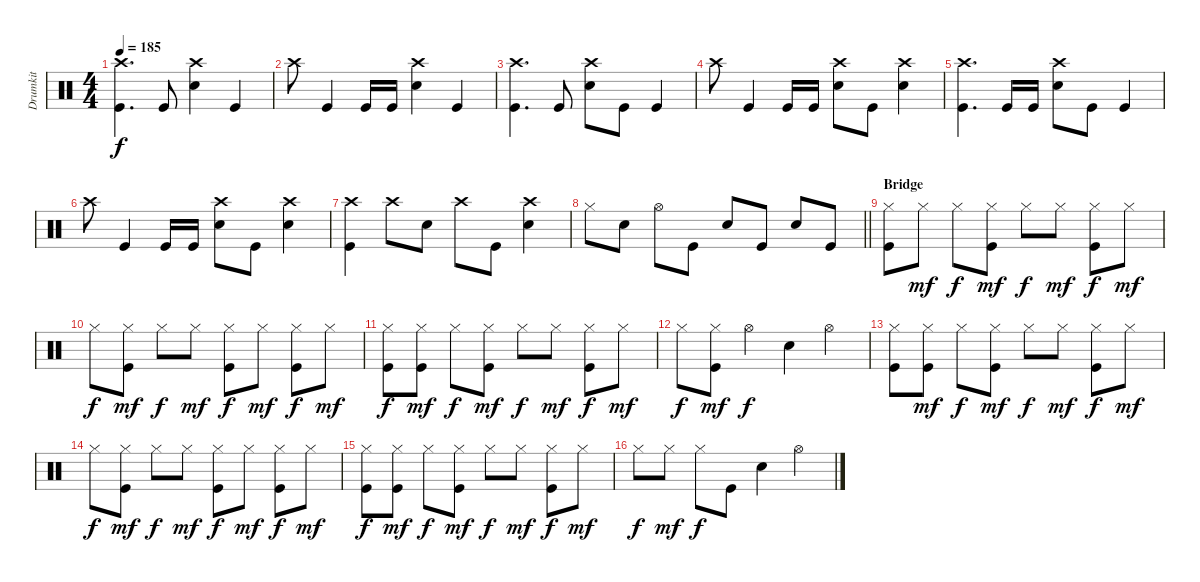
\track ("Drumkit" "Drumkit") {instrument percussion}
\staff {score}
\articulation defaults
\ts (4 4)
\tempo 185
\clef neutral
\ks c
("Crash high (hit)" "Kick (hit)").4{d dy f} "Kick (hit)".8 ("Snare (hit) 2" "Crash high (hit)").4 "Kick (hit)".4 |
"Crash high (hit)".8 "Kick (hit)".4 "Kick (hit)".16 "Kick (hit)".16 ("Snare (hit) 2" "Crash high (hit)").4 "Kick (hit)".4 |
("Crash high (hit)" "Kick (hit)").4{d} "Kick (hit)".8 ("Snare (hit) 2" "Crash high (hit)").8 "Kick (hit)".8 "Kick (hit)".4 |
"Crash high (hit)".8 "Kick (hit)".4 "Kick (hit)".16 "Kick (hit)".16 ("Crash high (hit)" "Snare (hit) 2").8 "Kick (hit)".8 ("Crash high (hit)" "Snare (hit) 2").4 |
("Crash high (hit)" "Kick (hit)").4{d} "Kick (hit)".16 "Kick (hit)".16 ("Snare (hit) 2" "Crash high (hit)").8 "Kick (hit)".8 "Kick (hit)".4 |
"Crash high (hit)".8 "Kick (hit)".4 "Kick (hit)".16 "Kick (hit)".16 ("Crash high (hit)" "Snare (hit) 2").8 "Kick (hit)".8 ("Crash high (hit)" "Snare (hit) 2").4 |
("Crash high (hit)" "Kick (hit)").4 "Crash high (hit)".8 "Snare (hit) 2".8 "Crash high (hit)".8 "Kick (hit)".8 ("Snare (hit) 2" "Crash high (hit)").4 |
\barLineRight lightlight "Hi-Hat (closed)".8 "Snare (hit) 2".8 "Hi-Hat (open)".8 "Kick (hit)".8 "Snare (hit) 2".8 "Kick (hit)".8 "Snare (hit) 2".8 "Kick (hit)".8
|
\section ("" "Bridge")
("Hi-Hat (closed)" "Kick (hit)").8 "Hi-Hat (closed)".8{dy mf} "Hi-Hat (closed)".8{dy f} ("Hi-Hat (closed)" "Kick (hit)").8{dy mf} "Hi-Hat (closed)".8{dy f} "Hi-Hat (closed)".8{dy mf} ("Hi-Hat (closed)" "Kick (hit)").8{dy f} "Hi-Hat (closed)".8{dy mf} |
"Hi-Hat (closed)".8{dy f} ("Hi-Hat (closed)" "Kick (hit)").8{dy mf} "Hi-Hat (closed)".8{dy f} "Hi-Hat (closed)".8{dy mf} ("Hi-Hat (closed)" "Kick (hit)").8{dy f} "Hi-Hat (closed)".8{dy mf} ("Hi-Hat (closed)" "Kick (hit)").8{dy f} "Hi-Hat (closed)".8{dy mf} |
("Hi-Hat (closed)" "Kick (hit)").8{dy f} ("Hi-Hat (closed)" "Kick (hit)").8{dy mf} "Hi-Hat (closed)".8{dy f} ("Hi-Hat (closed)" "Kick (hit)").8{dy mf} "Hi-Hat (closed)".8{dy f} "Hi-Hat (closed)".8{dy mf} ("Hi-Hat (closed)" "Kick (hit)").8{dy f} "Hi-Hat (closed)".8{dy mf} |
"Hi-Hat (closed)".8{dy f} ("Hi-Hat (closed)" "Kick (hit)").8{dy mf} "Hi-Hat (open)".4{dy f} "Snare (hit) 2".4 "Hi-Hat (open)".4 |
("Hi-Hat (closed)" "Kick (hit)").8 ("Hi-Hat (closed)" "Kick (hit)").8{dy mf} "Hi-Hat (closed)".8{dy f} ("Hi-Hat (closed)" "Kick (hit)").8{dy mf} "Hi-Hat (closed)".8{dy f} "Hi-Hat (closed)".8{dy mf} ("Hi-Hat (closed)" "Kick (hit)").8{dy f} "Hi-Hat (closed)".8{dy mf} |
"Hi-Hat (closed)".8{dy f} ("Hi-Hat (closed)" "Kick (hit)").8{dy mf} "Hi-Hat (closed)".8{dy f} "Hi-Hat (closed)".8{dy mf} ("Hi-Hat (closed)" "Kick (hit)").8{dy f} "Hi-Hat (closed)".8{dy mf} ("Hi-Hat (closed)" "Kick (hit)").8{dy f} "Hi-Hat (closed)".8{dy mf} |
("Hi-Hat (closed)" "Kick (hit)").8{dy f} ("Hi-Hat (closed)" "Kick (hit)").8{dy mf} "Hi-Hat (closed)".8{dy f} ("Hi-Hat (closed)" "Kick (hit)").8{dy mf} "Hi-Hat (closed)".8{dy f} "Hi-Hat (closed)".8{dy mf} ("Hi-Hat (closed)" "Kick (hit)").8{dy f} "Hi-Hat (closed)".8{dy mf} |
"Hi-Hat (closed)".8{dy f} "Hi-Hat (closed)".8{dy mf} "Hi-Hat (closed)".8{dy f} "Kick (hit)".8 "Snare (hit) 2".4 "Hi-Hat (open)".4
